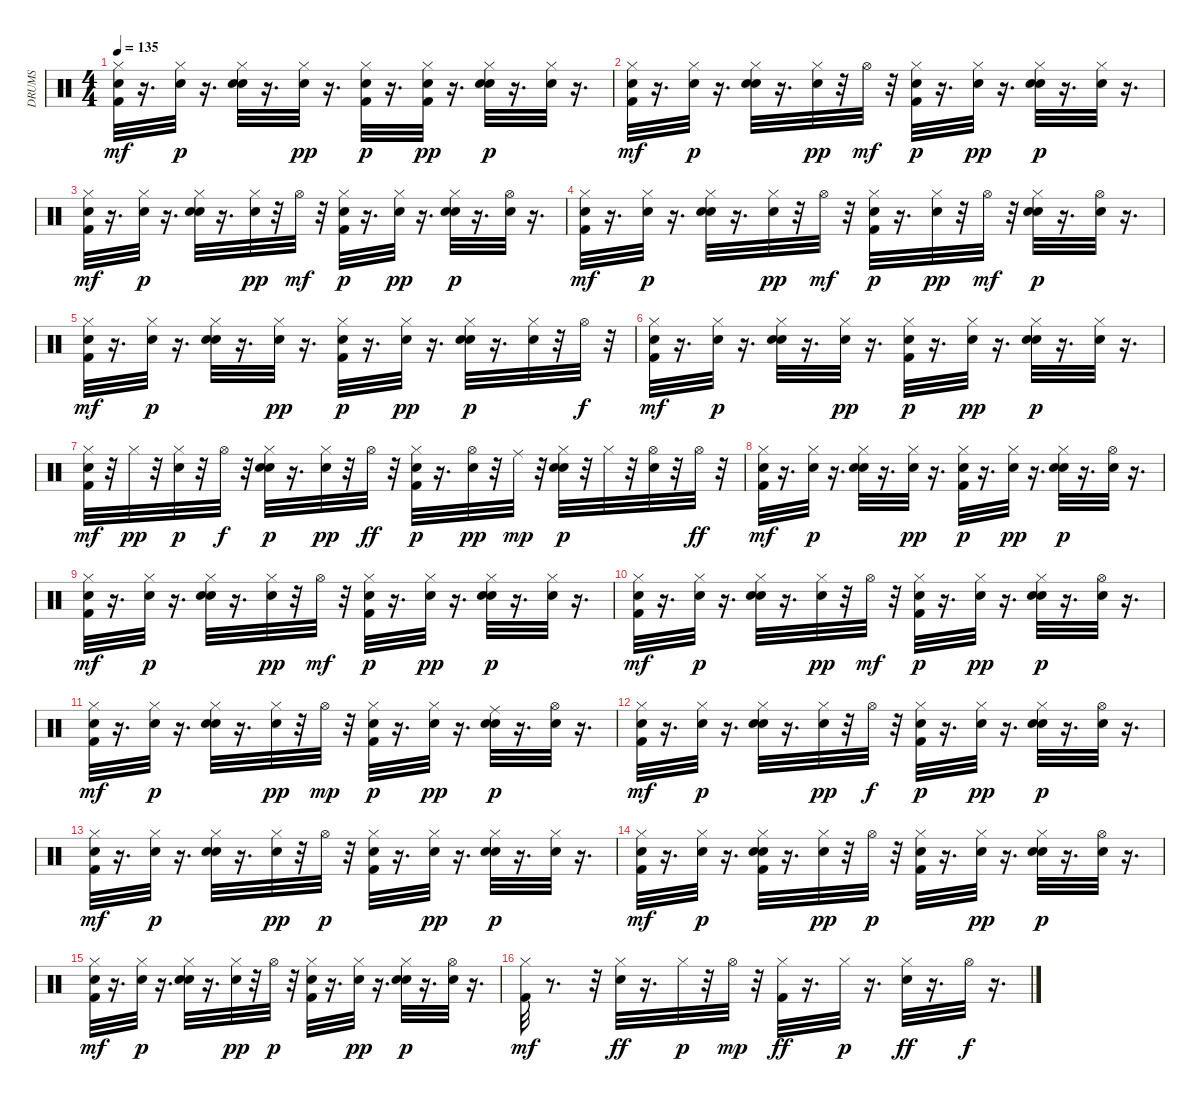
\track ("DRUMS" "DRUMS") {instrument percussion}
\staff {score}
\articulation defaults
\ts (4 4)
\tempo 135
\clef neutral
\ks c
("Kick (hit) 2" "Hand Clap (hit)" "Hi-Hat (closed)").32{dy mf} r.16{d} ("Hi-Hat (closed)" "Hand Clap (hit)").32{dy p} r.16{d} ("Hi-Hat (closed)" "Electric Snare (hit)" "Hand Clap (hit)").32 r.16{d} ("Hi-Hat (closed)" "Hand Clap (hit)").32{dy pp} r.16{d} ("Kick (hit) 2" "Hi-Hat (closed)" "Hand Clap (hit)").32{dy p} r.16{d} ("Kick (hit) 2" "Hi-Hat (closed)" "Hand Clap (hit)").32{dy pp} r.16{d} ("Hi-Hat (closed)" "Electric Snare (hit)" "Hand Clap (hit)").32{dy p} r.16{d} ("Hi-Hat (closed)" "Hand Clap (hit)").32 r.16{d} |
("Kick (hit) 2" "Hand Clap (hit)" "Hi-Hat (closed)").32{dy mf} r.16{d} ("Hi-Hat (closed)" "Hand Clap (hit)").32{dy p} r.16{d} ("Hi-Hat (closed)" "Electric Snare (hit)" "Hand Clap (hit)").32 r.16{d} ("Hi-Hat (closed)" "Hand Clap (hit)").32{dy pp} r.32 "Hi-Hat (open)".32{dy mf} r.32 ("Kick (hit) 2" "Hi-Hat (closed)" "Hand Clap (hit)").32{dy p} r.16{d} ("Hi-Hat (closed)" "Hand Clap (hit)").32{dy pp} r.16{d} ("Hi-Hat (closed)" "Electric Snare (hit)" "Hand Clap (hit)").32{dy p} r.16{d} ("Hi-Hat (closed)" "Hand Clap (hit)").32 r.16{d} |
("Kick (hit) 2" "Hand Clap (hit)" "Hi-Hat (closed)").32{dy mf} r.16{d} ("Hi-Hat (closed)" "Hand Clap (hit)").32{dy p} r.16{d} ("Hi-Hat (closed)" "Electric Snare (hit)" "Hand Clap (hit)").32 r.16{d} ("Hi-Hat (closed)" "Hand Clap (hit)").32{dy pp} r.32 "Hi-Hat (open)".32{dy mf} r.32 ("Kick (hit) 2" "Hi-Hat (closed)" "Hand Clap (hit)").32{dy p} r.16{d} ("Hi-Hat (closed)" "Hand Clap (hit)").32{dy pp} r.16{d} ("Hi-Hat (closed)" "Electric Snare (hit)" "Hand Clap (hit)").32{dy p} r.16{d} ("Hi-Hat (open)" "Hand Clap (hit)").32 r.16{d} |
("Kick (hit) 2" "Hand Clap (hit)" "Hi-Hat (closed)").32{dy mf} r.16{d} ("Hi-Hat (closed)" "Hand Clap (hit)").32{dy p} r.16{d} ("Hi-Hat (closed)" "Electric Snare (hit)" "Hand Clap (hit)").32 r.16{d} ("Hi-Hat (closed)" "Hand Clap (hit)").32{dy pp} r.32 "Hi-Hat (open)".32{dy mf} r.32 ("Kick (hit) 2" "Hi-Hat (closed)" "Hand Clap (hit)").32{dy p} r.16{d} ("Hi-Hat (closed)" "Hand Clap (hit)").32{dy pp} r.32 "Hi-Hat (open)".32{dy mf} r.32 ("Hi-Hat (closed)" "Electric Snare (hit)" "Hand Clap (hit)").32{dy p} r.16{d} ("Hi-Hat (open)" "Hand Clap (hit)").32 r.16{d} |
("Kick (hit) 2" "Hand Clap (hit)" "Hi-Hat (closed)").32{dy mf} r.16{d} ("Hi-Hat (closed)" "Hand Clap (hit)").32{dy p} r.16{d} ("Hi-Hat (closed)" "Electric Snare (hit)" "Hand Clap (hit)").32 r.16{d} ("Hi-Hat (closed)" "Hand Clap (hit)").32{dy pp} r.16{d} ("Kick (hit) 2" "Hi-Hat (closed)" "Hand Clap (hit)").32{dy p} r.16{d} ("Hi-Hat (closed)" "Hand Clap (hit)").32{dy pp} r.16{d} ("Hi-Hat (closed)" "Electric Snare (hit)" "Hand Clap (hit)").32{dy p} r.16{d} ("Hi-Hat (closed)" "Hand Clap (hit)").32 r.32 "Hi-Hat (open)".32{dy f} r.32 |
("Kick (hit) 2" "Hand Clap (hit)" "Hi-Hat (closed)").32{dy mf} r.16{d} ("Hi-Hat (closed)" "Hand Clap (hit)").32{dy p} r.16{d} ("Hi-Hat (closed)" "Electric Snare (hit)" "Hand Clap (hit)").32 r.16{d} ("Hi-Hat (closed)" "Hand Clap (hit)").32{dy pp} r.16{d} ("Kick (hit) 2" "Hi-Hat (closed)" "Hand Clap (hit)").32{dy p} r.16{d} ("Hi-Hat (closed)" "Hand Clap (hit)").32{dy pp} r.16{d} ("Hi-Hat (closed)" "Electric Snare (hit)" "Hand Clap (hit)").32{dy p} r.16{d} ("Hi-Hat (closed)" "Hand Clap (hit)").32 r.16{d} |
("Kick (hit) 2" "Hand Clap (hit)" "Hi-Hat (closed)").32{dy mf} r.32 "Hi-Hat (closed)".32{dy pp} r.32 ("Hi-Hat (closed)" "Hand Clap (hit)").32{dy p} r.32 "Hi-Hat (open)".32{dy f} r.32 ("Hi-Hat (closed)" "Electric Snare (hit)" "Hand Clap (hit)").32{dy p} r.16{d} ("Hi-Hat (closed)" "Hand Clap (hit)").32{dy pp} r.32 "Hi-Hat (open)".32{dy ff} r.32 ("Kick (hit) 2" "Hi-Hat (closed)" "Hand Clap (hit)").32{dy p} r.16{d} ("Hi-Hat (open)" "Hand Clap (hit)").32{dy pp} r.32 "Ride (middle)".32{dy mp} r.32 ("Hi-Hat (closed)" "Electric Snare (hit)" "Hand Clap (hit)").32{dy p} r.32 "Hi-Hat (closed)".32 r.32 ("Hi-Hat (open)" "Hand Clap (hit)").32 r.32 "Hi-Hat (open)".32{dy ff} r.32 |
("Kick (hit) 2" "Hand Clap (hit)" "Hi-Hat (closed)").32{dy mf} r.16{d} ("Hi-Hat (closed)" "Hand Clap (hit)").32{dy p} r.16{d} ("Hi-Hat (closed)" "Electric Snare (hit)" "Hand Clap (hit)").32 r.16{d} ("Hi-Hat (closed)" "Hand Clap (hit)").32{dy pp} r.16{d} ("Kick (hit) 2" "Hi-Hat (closed)" "Hand Clap (hit)").32{dy p} r.16{d} ("Hi-Hat (closed)" "Hand Clap (hit)").32{dy pp} r.16{d} ("Hi-Hat (closed)" "Electric Snare (hit)" "Hand Clap (hit)").32{dy p} r.16{d} ("Hi-Hat (open)" "Hand Clap (hit)").32 r.16{d} |
("Kick (hit) 2" "Hand Clap (hit)" "Hi-Hat (closed)").32{dy mf} r.16{d} ("Hi-Hat (closed)" "Hand Clap (hit)").32{dy p} r.16{d} ("Hi-Hat (closed)" "Electric Snare (hit)" "Hand Clap (hit)").32 r.16{d} ("Hi-Hat (closed)" "Hand Clap (hit)").32{dy pp} r.32 "Hi-Hat (open)".32{dy mf} r.32 ("Kick (hit) 2" "Hi-Hat (closed)" "Hand Clap (hit)").32{dy p} r.16{d} ("Hi-Hat (closed)" "Hand Clap (hit)").32{dy pp} r.16{d} ("Hi-Hat (closed)" "Electric Snare (hit)" "Hand Clap (hit)").32{dy p} r.16{d} ("Hi-Hat (closed)" "Hand Clap (hit)").32 r.16{d} |
("Kick (hit) 2" "Hand Clap (hit)" "Hi-Hat (closed)").32{dy mf} r.16{d} ("Hi-Hat (closed)" "Hand Clap (hit)").32{dy p} r.16{d} ("Hi-Hat (closed)" "Electric Snare (hit)" "Hand Clap (hit)").32 r.16{d} ("Hi-Hat (closed)" "Hand Clap (hit)").32{dy pp} r.32 "Hi-Hat (open)".32{dy mf} r.32 ("Kick (hit) 2" "Hi-Hat (closed)" "Hand Clap (hit)").32{dy p} r.16{d} ("Hi-Hat (closed)" "Hand Clap (hit)").32{dy pp} r.16{d} ("Hi-Hat (closed)" "Electric Snare (hit)" "Hand Clap (hit)").32{dy p} r.16{d} ("Hi-Hat (open)" "Hand Clap (hit)").32 r.16{d} |
("Kick (hit) 2" "Hand Clap (hit)" "Hi-Hat (closed)").32{dy mf} r.16{d} ("Hi-Hat (closed)" "Hand Clap (hit)").32{dy p} r.16{d} ("Hi-Hat (closed)" "Electric Snare (hit)" "Hand Clap (hit)").32 r.16{d} ("Hi-Hat (closed)" "Hand Clap (hit)").32{dy pp} r.32 "Hi-Hat (open)".32{dy mp} r.32 ("Kick (hit) 2" "Hi-Hat (closed)" "Hand Clap (hit)").32{dy p} r.16{d} ("Hi-Hat (closed)" "Hand Clap (hit)").32{dy pp} r.16{d} ("Ride (middle)" "Electric Snare (hit)" "Hand Clap (hit)").32{dy p} r.16{d} ("Hi-Hat (open)" "Hand Clap (hit)").32 r.16{d} |
("Kick (hit) 2" "Hand Clap (hit)" "Hi-Hat (closed)").32{dy mf} r.16{d} ("Hi-Hat (closed)" "Hand Clap (hit)").32{dy p} r.16{d} ("Hi-Hat (closed)" "Electric Snare (hit)" "Hand Clap (hit)").32 r.16{d} ("Hi-Hat (closed)" "Hand Clap (hit)").32{dy pp} r.32 "Hi-Hat (open)".32{dy f} r.32 ("Kick (hit) 2" "Hi-Hat (closed)" "Hand Clap (hit)").32{dy p} r.16{d} ("Hi-Hat (closed)" "Hand Clap (hit)").32{dy pp} r.16{d} ("Hi-Hat (closed)" "Electric Snare (hit)" "Hand Clap (hit)").32{dy p} r.16{d} ("Hi-Hat (open)" "Hand Clap (hit)").32 r.16{d} |
("Kick (hit) 2" "Hand Clap (hit)" "Hi-Hat (closed)").32{dy mf} r.16{d} ("Hi-Hat (closed)" "Hand Clap (hit)").32{dy p} r.16{d} ("Hi-Hat (closed)" "Electric Snare (hit)" "Hand Clap (hit)").32 r.16{d} ("Hi-Hat (closed)" "Hand Clap (hit)").32{dy pp} r.32 "Hi-Hat (open)".32{dy p} r.32 ("Kick (hit) 2" "Hi-Hat (closed)" "Hand Clap (hit)").32 r.16{d} ("Hi-Hat (closed)" "Hand Clap (hit)").32{dy pp} r.16{d} ("Hi-Hat (closed)" "Electric Snare (hit)" "Hand Clap (hit)").32{dy p} r.16{d} ("Hi-Hat (closed)" "Hand Clap (hit)").32 r.16{d} |
("Kick (hit) 2" "Hand Clap (hit)" "Hi-Hat (closed)").32{dy mf} r.16{d} ("Hi-Hat (closed)" "Hand Clap (hit)").32{dy p} r.16{d} ("Hi-Hat (closed)" "Electric Snare (hit)" "Kick (hit) 2" "Hand Clap (hit)").32 r.16{d} ("Hi-Hat (closed)" "Hand Clap (hit)").32{dy pp} r.32 "Hi-Hat (open)".32{dy p} r.32 ("Kick (hit) 2" "Hi-Hat (closed)" "Hand Clap (hit)").32 r.16{d} ("Hi-Hat (closed)" "Hand Clap (hit)").32{dy pp} r.16{d} ("Hi-Hat (closed)" "Electric Snare (hit)" "Hand Clap (hit)").32{dy p} r.16{d} ("Hi-Hat (open)" "Hand Clap (hit)").32 r.16{d} |
("Kick (hit) 2" "Hand Clap (hit)" "Hi-Hat (closed)").32{dy mf} r.16{d} ("Hi-Hat (closed)" "Hand Clap (hit)").32{dy p} r.16{d} ("Hi-Hat (closed)" "Electric Snare (hit)" "Hand Clap (hit)").32 r.16{d} ("Hi-Hat (closed)" "Hand Clap (hit)").32{dy pp} r.32 "Hi-Hat (open)".32{dy p} r.32 ("Kick (hit) 2" "Hi-Hat (closed)" "Hand Clap (hit)").32 r.16{d} ("Hi-Hat (closed)" "Hand Clap (hit)").32{dy pp} r.16{d} ("Hi-Hat (closed)" "Electric Snare (hit)" "Hand Clap (hit)").32{dy p} r.16{d} ("Hi-Hat (open)" "Hand Clap (hit)").32 r.16{d} |
("Kick (hit) 2" "Hi-Hat (closed)").32{dy mf} r.8{d} r.32 ("Hi-Hat (closed)" "Electric Snare (hit)").32{dy ff} r.16{d} "Hi-Hat (closed)".32{dy p} r.32 "Hi-Hat (open)".32{dy mp} r.32 ("Kick (hit) 2" "Hi-Hat (closed)").32{dy ff} r.16{d} "Hi-Hat (closed)".32{dy p} r.16{d} ("Hi-Hat (closed)" "Electric Snare (hit)").32{dy ff} r.16{d} "Hi-Hat (open)".32{dy f} r.16{d}
